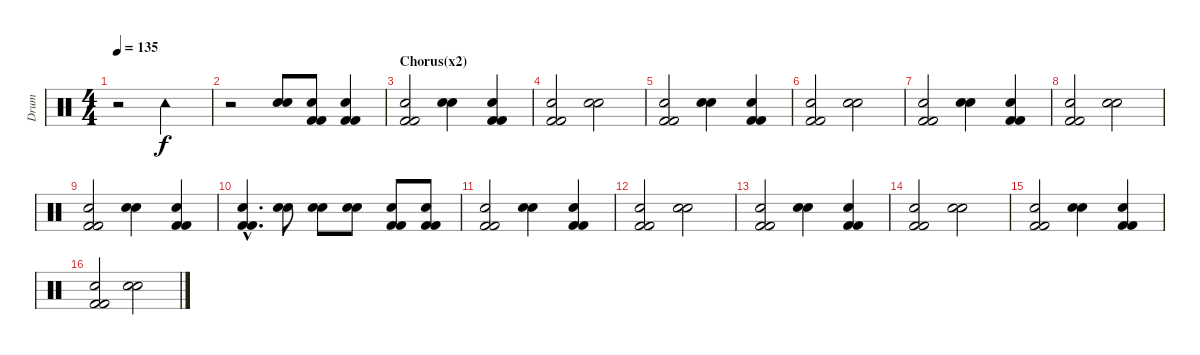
\track ("Drum" "Drum") {instrument percussion}
\staff {score}
\articulation defaults
\ts (4 4)
\tempo 135
\clef neutral
\ks c
r.2{dy f} "Tambourine (hit)".2 |
r.2 ("Electric Snare (hit)" "Electric Snare (hit)").8 ("Electric Snare (hit)" "Kick (hit) 2" "Kick (hit) 2").8 ("Electric Snare (hit)" "Kick (hit) 2" "Kick (hit) 2").4 |
\section ("" "Chorus(x2)")
("Electric Snare (hit)" "Kick (hit) 2" "Kick (hit) 2").2 ("Electric Snare (hit)" "Electric Snare (hit)").4 ("Electric Snare (hit)" "Kick (hit) 2" "Kick (hit) 2").4 |
("Electric Snare (hit)" "Kick (hit) 2" "Kick (hit) 2").2 ("Electric Snare (hit)" "Electric Snare (hit)").2 |
("Electric Snare (hit)" "Kick (hit) 2" "Kick (hit) 2").2 ("Electric Snare (hit)" "Electric Snare (hit)").4 ("Electric Snare (hit)" "Kick (hit) 2" "Kick (hit) 2").4 |
("Electric Snare (hit)" "Kick (hit) 2" "Kick (hit) 2").2 ("Electric Snare (hit)" "Electric Snare (hit)").2 |
("Electric Snare (hit)" "Kick (hit) 2" "Kick (hit) 2").2 ("Electric Snare (hit)" "Electric Snare (hit)").4 ("Electric Snare (hit)" "Kick (hit) 2" "Kick (hit) 2").4 |
("Electric Snare (hit)" "Kick (hit) 2" "Kick (hit) 2").2 ("Electric Snare (hit)" "Electric Snare (hit)").2 |
("Electric Snare (hit)" "Kick (hit) 2" "Kick (hit) 2").2 ("Electric Snare (hit)" "Electric Snare (hit)").4 ("Electric Snare (hit)" "Kick (hit) 2" "Kick (hit) 2").4 |
("Electric Snare (hit)"{hac} "Kick (hit) 2"{hac} "Kick (hit) 2"{hac}).4{d} ("Electric Snare (hit)" "Electric Snare (hit)").8 ("Electric Snare (hit)" "Electric Snare (hit)").8 ("Electric Snare (hit)" "Electric Snare (hit)").8 ("Electric Snare (hit)" "Kick (hit) 2" "Kick (hit) 2").8 ("Electric Snare (hit)" "Kick (hit) 2" "Kick (hit) 2").8 |
("Electric Snare (hit)" "Kick (hit) 2" "Kick (hit) 2").2 ("Electric Snare (hit)" "Electric Snare (hit)").4 ("Electric Snare (hit)" "Kick (hit) 2" "Kick (hit) 2").4 |
("Electric Snare (hit)" "Kick (hit) 2" "Kick (hit) 2").2 ("Electric Snare (hit)" "Electric Snare (hit)").2 |
("Electric Snare (hit)" "Kick (hit) 2" "Kick (hit) 2").2 ("Electric Snare (hit)" "Electric Snare (hit)").4 ("Electric Snare (hit)" "Kick (hit) 2" "Kick (hit) 2").4 |
("Electric Snare (hit)" "Kick (hit) 2" "Kick (hit) 2").2 ("Electric Snare (hit)" "Electric Snare (hit)").2 |
("Electric Snare (hit)" "Kick (hit) 2" "Kick (hit) 2").2 ("Electric Snare (hit)" "Electric Snare (hit)").4 ("Electric Snare (hit)" "Kick (hit) 2" "Kick (hit) 2").4 |
("Electric Snare (hit)" "Kick (hit) 2" "Kick (hit) 2").2 ("Electric Snare (hit)" "Electric Snare (hit)").2
